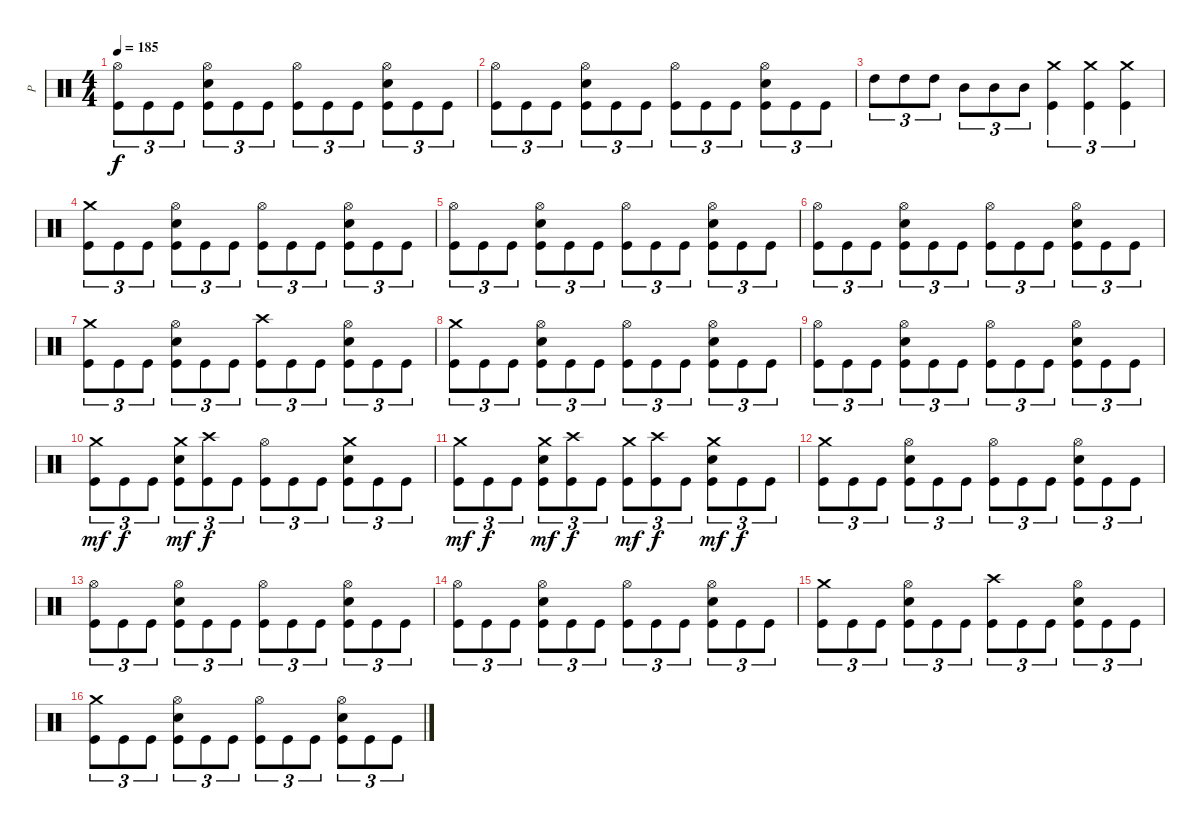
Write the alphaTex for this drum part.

\track ("P" "P") {instrument percussion}
\staff {score}
\articulation defaults
\ts (4 4)
\tempo 185
\clef neutral
\ks c
("Hi-Hat (open)" "Kick (hit)").8{tu (3 2) dy f} "Kick (hit)".8{tu (3 2)} "Kick (hit)".8{tu (3 2)} ("Hi-Hat (open)" "Electric Snare (hit)" "Kick (hit)").8{tu (3 2)} "Kick (hit)".8{tu (3 2)} "Kick (hit)".8{tu (3 2)} ("Hi-Hat (open)" "Kick (hit)").8{tu (3 2)} "Kick (hit)".8{tu (3 2)} "Kick (hit)".8{tu (3 2)} ("Hi-Hat (open)" "Electric Snare (hit)" "Kick (hit)").8{tu (3 2)} "Kick (hit)".8{tu (3 2)} "Kick (hit)".8{tu (3 2)} |
("Hi-Hat (open)" "Kick (hit)").8{tu (3 2)} "Kick (hit)".8{tu (3 2)} "Kick (hit)".8{tu (3 2)} ("Hi-Hat (open)" "Electric Snare (hit)" "Kick (hit)").8{tu (3 2)} "Kick (hit)".8{tu (3 2)} "Kick (hit)".8{tu (3 2)} ("Hi-Hat (open)" "Kick (hit)").8{tu (3 2)} "Kick (hit)".8{tu (3 2)} "Kick (hit)".8{tu (3 2)} ("Hi-Hat (open)" "Electric Snare (hit)" "Kick (hit)").8{tu (3 2)} "Kick (hit)".8{tu (3 2)} "Kick (hit)".8{tu (3 2)} |
"High Tom (hit)".8{tu (3 2)} "High Tom (hit)".8{tu (3 2)} "High Tom (hit)".8{tu (3 2)} "Mid Tom (hit)".8{tu (3 2)} "Mid Tom (hit)".8{tu (3 2)} "Mid Tom (hit)".8{tu (3 2)} ("Crash medium (hit)" "Kick (hit)").4{tu (3 2)} ("Crash medium (hit)" "Kick (hit)").4{tu (3 2)} ("Crash medium (hit)" "Kick (hit)").4{tu (3 2)} |
("Crash medium (hit)" "Kick (hit)").8{tu (3 2)} "Kick (hit)".8{tu (3 2)} "Kick (hit)".8{tu (3 2)} ("Hi-Hat (open)" "Electric Snare (hit)" "Kick (hit)").8{tu (3 2)} "Kick (hit)".8{tu (3 2)} "Kick (hit)".8{tu (3 2)} ("Hi-Hat (open)" "Kick (hit)").8{tu (3 2)} "Kick (hit)".8{tu (3 2)} "Kick (hit)".8{tu (3 2)} ("Hi-Hat (open)" "Electric Snare (hit)" "Kick (hit)").8{tu (3 2)} "Kick (hit)".8{tu (3 2)} "Kick (hit)".8{tu (3 2)} |
("Hi-Hat (open)" "Kick (hit)").8{tu (3 2)} "Kick (hit)".8{tu (3 2)} "Kick (hit)".8{tu (3 2)} ("Hi-Hat (open)" "Electric Snare (hit)" "Kick (hit)").8{tu (3 2)} "Kick (hit)".8{tu (3 2)} "Kick (hit)".8{tu (3 2)} ("Hi-Hat (open)" "Kick (hit)").8{tu (3 2)} "Kick (hit)".8{tu (3 2)} "Kick (hit)".8{tu (3 2)} ("Hi-Hat (open)" "Electric Snare (hit)" "Kick (hit)").8{tu (3 2)} "Kick (hit)".8{tu (3 2)} "Kick (hit)".8{tu (3 2)} |
("Hi-Hat (open)" "Kick (hit)").8{tu (3 2)} "Kick (hit)".8{tu (3 2)} "Kick (hit)".8{tu (3 2)} ("Hi-Hat (open)" "Electric Snare (hit)" "Kick (hit)").8{tu (3 2)} "Kick (hit)".8{tu (3 2)} "Kick (hit)".8{tu (3 2)} ("Hi-Hat (open)" "Kick (hit)").8{tu (3 2)} "Kick (hit)".8{tu (3 2)} "Kick (hit)".8{tu (3 2)} ("Hi-Hat (open)" "Electric Snare (hit)" "Kick (hit)").8{tu (3 2)} "Kick (hit)".8{tu (3 2)} "Kick (hit)".8{tu (3 2)} |
("Crash medium (hit)" "Kick (hit)").8{tu (3 2)} "Kick (hit)".8{tu (3 2)} "Kick (hit)".8{tu (3 2)} ("Hi-Hat (open)" "Electric Snare (hit)" "Kick (hit)").8{tu (3 2)} "Kick (hit)".8{tu (3 2)} "Kick (hit)".8{tu (3 2)} ("Crash high (hit)" "Kick (hit)").8{tu (3 2)} "Kick (hit)".8{tu (3 2)} "Kick (hit)".8{tu (3 2)} ("Hi-Hat (open)" "Electric Snare (hit)" "Kick (hit)").8{tu (3 2)} "Kick (hit)".8{tu (3 2)} "Kick (hit)".8{tu (3 2)} |
("Crash medium (hit)" "Kick (hit)").8{tu (3 2)} "Kick (hit)".8{tu (3 2)} "Kick (hit)".8{tu (3 2)} ("Hi-Hat (open)" "Electric Snare (hit)" "Kick (hit)").8{tu (3 2)} "Kick (hit)".8{tu (3 2)} "Kick (hit)".8{tu (3 2)} ("Hi-Hat (open)" "Kick (hit)").8{tu (3 2)} "Kick (hit)".8{tu (3 2)} "Kick (hit)".8{tu (3 2)} ("Hi-Hat (open)" "Electric Snare (hit)" "Kick (hit)").8{tu (3 2)} "Kick (hit)".8{tu (3 2)} "Kick (hit)".8{tu (3 2)} |
("Hi-Hat (open)" "Kick (hit)").8{tu (3 2)} "Kick (hit)".8{tu (3 2)} "Kick (hit)".8{tu (3 2)} ("Hi-Hat (open)" "Electric Snare (hit)" "Kick (hit)").8{tu (3 2)} "Kick (hit)".8{tu (3 2)} "Kick (hit)".8{tu (3 2)} ("Hi-Hat (open)" "Kick (hit)").8{tu (3 2)} "Kick (hit)".8{tu (3 2)} "Kick (hit)".8{tu (3 2)} ("Hi-Hat (open)" "Electric Snare (hit)" "Kick (hit)").8{tu (3 2)} "Kick (hit)".8{tu (3 2)} "Kick (hit)".8{tu (3 2)} |
("Crash medium (hit)" "Kick (hit)").8{tu (3 2) dy mf} "Kick (hit)".8{tu (3 2) dy f} "Kick (hit)".8{tu (3 2)} ("Crash medium (hit)" "Electric Snare (hit)" "Kick (hit)").8{tu (3 2) dy mf} ("Crash high (hit)" "Kick (hit)").8{tu (3 2) dy f} "Kick (hit)".8{tu (3 2)} ("Hi-Hat (open)" "Kick (hit)").8{tu (3 2)} "Kick (hit)".8{tu (3 2)} "Kick (hit)".8{tu (3 2)} ("Crash medium (hit)" "Electric Snare (hit)" "Kick (hit)").8{tu (3 2)} "Kick (hit)".8{tu (3 2)} "Kick (hit)".8{tu (3 2)} |
("Crash medium (hit)" "Kick (hit)").8{tu (3 2) dy mf} "Kick (hit)".8{tu (3 2) dy f} "Kick (hit)".8{tu (3 2)} ("Crash medium (hit)" "Electric Snare (hit)" "Kick (hit)").8{tu (3 2) dy mf} ("Crash high (hit)" "Kick (hit)").8{tu (3 2) dy f} "Kick (hit)".8{tu (3 2)} ("Crash medium (hit)" "Kick (hit)").8{tu (3 2) dy mf} ("Crash high (hit)" "Kick (hit)").8{tu (3 2) dy f} "Kick (hit)".8{tu (3 2)} ("Crash medium (hit)" "Electric Snare (hit)" "Kick (hit)").8{tu (3 2) dy mf} "Kick (hit)".8{tu (3 2) dy f} "Kick (hit)".8{tu (3 2)} |
("Crash medium (hit)" "Kick (hit)").8{tu (3 2)} "Kick (hit)".8{tu (3 2)} "Kick (hit)".8{tu (3 2)} ("Hi-Hat (open)" "Electric Snare (hit)" "Kick (hit)").8{tu (3 2)} "Kick (hit)".8{tu (3 2)} "Kick (hit)".8{tu (3 2)} ("Hi-Hat (open)" "Kick (hit)").8{tu (3 2)} "Kick (hit)".8{tu (3 2)} "Kick (hit)".8{tu (3 2)} ("Hi-Hat (open)" "Electric Snare (hit)" "Kick (hit)").8{tu (3 2)} "Kick (hit)".8{tu (3 2)} "Kick (hit)".8{tu (3 2)} |
("Hi-Hat (open)" "Kick (hit)").8{tu (3 2)} "Kick (hit)".8{tu (3 2)} "Kick (hit)".8{tu (3 2)} ("Hi-Hat (open)" "Electric Snare (hit)" "Kick (hit)").8{tu (3 2)} "Kick (hit)".8{tu (3 2)} "Kick (hit)".8{tu (3 2)} ("Hi-Hat (open)" "Kick (hit)").8{tu (3 2)} "Kick (hit)".8{tu (3 2)} "Kick (hit)".8{tu (3 2)} ("Hi-Hat (open)" "Electric Snare (hit)" "Kick (hit)").8{tu (3 2)} "Kick (hit)".8{tu (3 2)} "Kick (hit)".8{tu (3 2)} |
("Hi-Hat (open)" "Kick (hit)").8{tu (3 2)} "Kick (hit)".8{tu (3 2)} "Kick (hit)".8{tu (3 2)} ("Hi-Hat (open)" "Electric Snare (hit)" "Kick (hit)").8{tu (3 2)} "Kick (hit)".8{tu (3 2)} "Kick (hit)".8{tu (3 2)} ("Hi-Hat (open)" "Kick (hit)").8{tu (3 2)} "Kick (hit)".8{tu (3 2)} "Kick (hit)".8{tu (3 2)} ("Hi-Hat (open)" "Electric Snare (hit)" "Kick (hit)").8{tu (3 2)} "Kick (hit)".8{tu (3 2)} "Kick (hit)".8{tu (3 2)} |
("Crash medium (hit)" "Kick (hit)").8{tu (3 2)} "Kick (hit)".8{tu (3 2)} "Kick (hit)".8{tu (3 2)} ("Hi-Hat (open)" "Electric Snare (hit)" "Kick (hit)").8{tu (3 2)} "Kick (hit)".8{tu (3 2)} "Kick (hit)".8{tu (3 2)} ("Crash high (hit)" "Kick (hit)").8{tu (3 2)} "Kick (hit)".8{tu (3 2)} "Kick (hit)".8{tu (3 2)} ("Hi-Hat (open)" "Electric Snare (hit)" "Kick (hit)").8{tu (3 2)} "Kick (hit)".8{tu (3 2)} "Kick (hit)".8{tu (3 2)} |
("Crash medium (hit)" "Kick (hit)").8{tu (3 2)} "Kick (hit)".8{tu (3 2)} "Kick (hit)".8{tu (3 2)} ("Hi-Hat (open)" "Electric Snare (hit)" "Kick (hit)").8{tu (3 2)} "Kick (hit)".8{tu (3 2)} "Kick (hit)".8{tu (3 2)} ("Hi-Hat (open)" "Kick (hit)").8{tu (3 2)} "Kick (hit)".8{tu (3 2)} "Kick (hit)".8{tu (3 2)} ("Hi-Hat (open)" "Electric Snare (hit)" "Kick (hit)").8{tu (3 2)} "Kick (hit)".8{tu (3 2)} "Kick (hit)".8{tu (3 2)}
